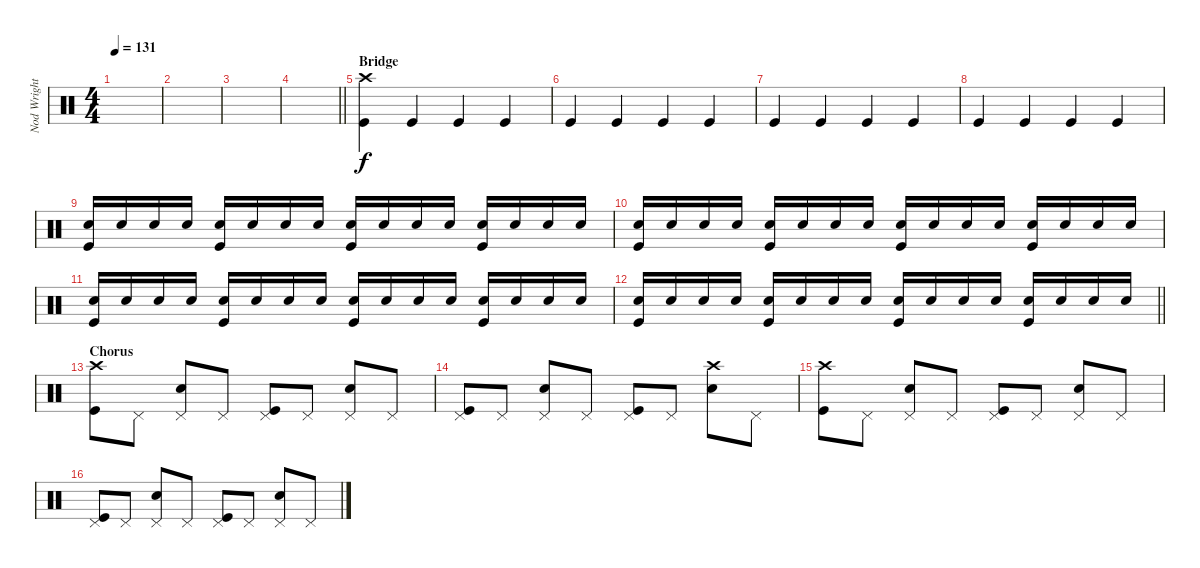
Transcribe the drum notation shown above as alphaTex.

\track ("Nod Wright" "Nod Wright") {instrument percussion}
\staff {score}
\articulation defaults
\ts (4 4)
\tempo 131
\clef neutral
\ks c
|
|
|
\barLineRight lightlight
|
\section ("" "Bridge")
("Crash high (hit)" "Kick (hit)").4 "Kick (hit)".4 "Kick (hit)".4 "Kick (hit)".4 |
"Kick (hit)".4 "Kick (hit)".4 "Kick (hit)".4 "Kick (hit)".4 |
"Kick (hit)".4 "Kick (hit)".4 "Kick (hit)".4 "Kick (hit)".4 |
"Kick (hit)".4 "Kick (hit)".4 "Kick (hit)".4 "Kick (hit)".4{volume 2} |
("Snare (hit) 2" "Kick (hit)").16{volume 13} "Snare (hit) 2".16 "Snare (hit) 2".16 "Snare (hit) 2".16 ("Snare (hit) 2" "Kick (hit)").16 "Snare (hit) 2".16 "Snare (hit) 2".16 "Snare (hit) 2".16 ("Snare (hit) 2" "Kick (hit)").16 "Snare (hit) 2".16 "Snare (hit) 2".16 "Snare (hit) 2".16 ("Snare (hit) 2" "Kick (hit)").16 "Snare (hit) 2".16 "Snare (hit) 2".16 "Snare (hit) 2".16 |
("Snare (hit) 2" "Kick (hit)").16 "Snare (hit) 2".16 "Snare (hit) 2".16 "Snare (hit) 2".16 ("Snare (hit) 2" "Kick (hit)").16 "Snare (hit) 2".16 "Snare (hit) 2".16 "Snare (hit) 2".16 ("Snare (hit) 2" "Kick (hit)").16 "Snare (hit) 2".16 "Snare (hit) 2".16 "Snare (hit) 2".16 ("Snare (hit) 2" "Kick (hit)").16 "Snare (hit) 2".16 "Snare (hit) 2".16 "Snare (hit) 2".16 |
("Snare (hit) 2" "Kick (hit)").16 "Snare (hit) 2".16 "Snare (hit) 2".16 "Snare (hit) 2".16 ("Snare (hit) 2" "Kick (hit)").16 "Snare (hit) 2".16 "Snare (hit) 2".16 "Snare (hit) 2".16 ("Snare (hit) 2" "Kick (hit)").16 "Snare (hit) 2".16 "Snare (hit) 2".16 "Snare (hit) 2".16 ("Snare (hit) 2" "Kick (hit)").16 "Snare (hit) 2".16 "Snare (hit) 2".16 "Snare (hit) 2".16 |
\barLineRight lightlight
("Snare (hit) 2" "Kick (hit)").16 "Snare (hit) 2".16 "Snare (hit) 2".16 "Snare (hit) 2".16 ("Snare (hit) 2" "Kick (hit)").16 "Snare (hit) 2".16 "Snare (hit) 2".16 "Snare (hit) 2".16 ("Snare (hit) 2" "Kick (hit)").16 "Snare (hit) 2".16 "Snare (hit) 2".16 "Snare (hit) 2".16 ("Snare (hit) 2" "Kick (hit)").16 "Snare (hit) 2".16 "Snare (hit) 2".16 "Snare (hit) 2".16 |
\section ("" "Chorus")
("Crash high (hit)" "Kick (hit)").8 "Pedal Hi-Hat (hit)".8 ("Pedal Hi-Hat (hit)" "Snare (hit) 2").8 "Pedal Hi-Hat (hit)".8 ("Pedal Hi-Hat (hit)" "Kick (hit)").8 "Pedal Hi-Hat (hit)".8 ("Pedal Hi-Hat (hit)" "Snare (hit) 2").8 "Pedal Hi-Hat (hit)".8 |
("Pedal Hi-Hat (hit)" "Kick (hit)").8 "Pedal Hi-Hat (hit)".8 ("Pedal Hi-Hat (hit)" "Snare (hit) 2").8 "Pedal Hi-Hat (hit)".8 ("Pedal Hi-Hat (hit)" "Kick (hit)").8 "Pedal Hi-Hat (hit)".8 ("Crash high (hit)" "Snare (hit) 2").8 "Pedal Hi-Hat (hit)".8 |
("Crash high (hit)" "Kick (hit)").8 "Pedal Hi-Hat (hit)".8 ("Pedal Hi-Hat (hit)" "Snare (hit) 2").8 "Pedal Hi-Hat (hit)".8 ("Pedal Hi-Hat (hit)" "Kick (hit)").8 "Pedal Hi-Hat (hit)".8 ("Pedal Hi-Hat (hit)" "Snare (hit) 2").8 "Pedal Hi-Hat (hit)".8 |
("Pedal Hi-Hat (hit)" "Kick (hit)").8 "Pedal Hi-Hat (hit)".8 ("Pedal Hi-Hat (hit)" "Snare (hit) 2").8 "Pedal Hi-Hat (hit)".8 ("Pedal Hi-Hat (hit)" "Kick (hit)").8 "Pedal Hi-Hat (hit)".8 ("Pedal Hi-Hat (hit)" "Snare (hit) 2").8 "Pedal Hi-Hat (hit)".8
